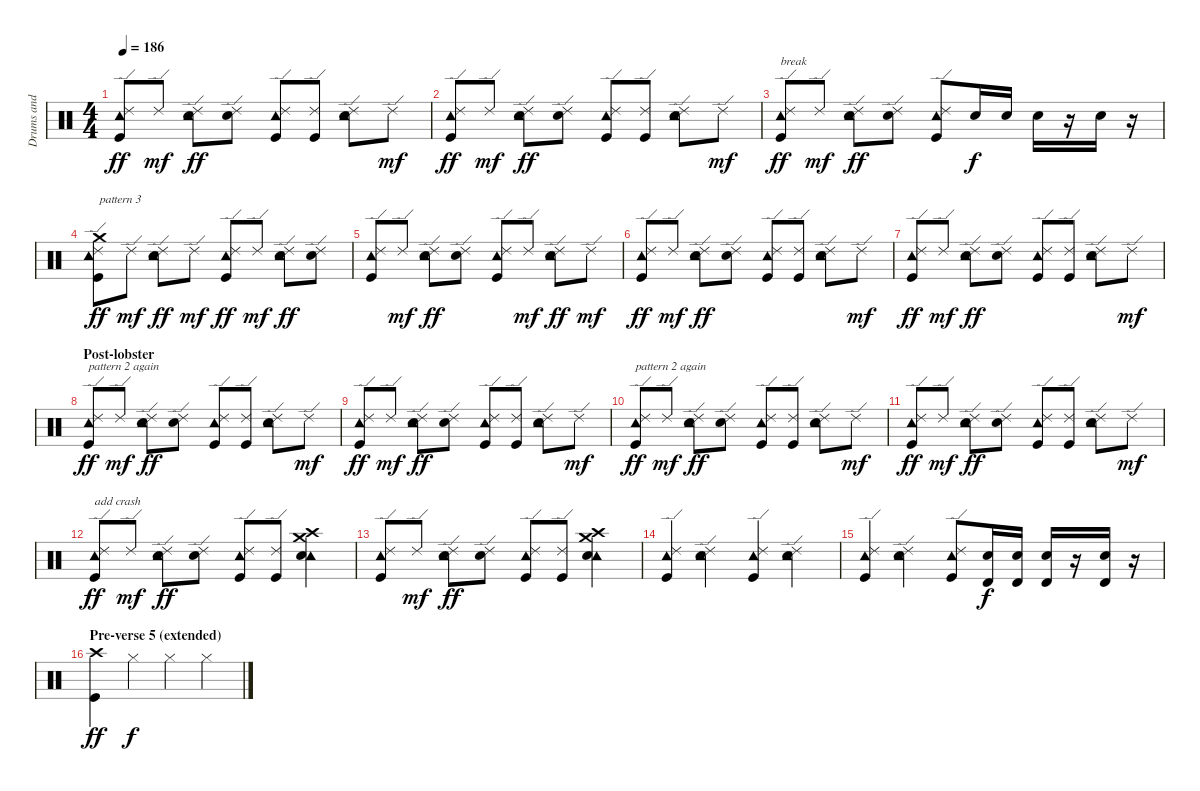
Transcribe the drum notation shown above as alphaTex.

\track ("Drums and Percs" "Drums and ") {instrument percussion}
\staff {score}
\articulation defaults
\ts (4 4)
\tempo 186
\clef neutral
\ks c
("Ride (edge) 2" "Tambourine (hit)" "Kick (hit)").8{dy ff} "Ride (edge) 2".8{dy mf} ("Ride (edge) 2" "Tambourine (hit)" "Electric Snare (hit)").8{dy ff} ("Ride (edge) 2" "Electric Snare (hit)").8 ("Ride (edge) 2" "Tambourine (hit)" "Kick (hit)").8 ("Ride (edge) 2" "Kick (hit)").8 ("Ride (edge) 2" "Tambourine (hit)" "Electric Snare (hit)").8 "Ride (edge) 2".8{dy mf} |
("Ride (edge) 2" "Tambourine (hit)" "Kick (hit)").8{dy ff} "Ride (edge) 2".8{dy mf} ("Ride (edge) 2" "Tambourine (hit)" "Electric Snare (hit)").8{dy ff} ("Ride (edge) 2" "Electric Snare (hit)").8 ("Ride (edge) 2" "Tambourine (hit)" "Kick (hit)").8 ("Ride (edge) 2" "Kick (hit)").8 ("Ride (edge) 2" "Tambourine (hit)" "Electric Snare (hit)").8 "Ride (edge) 2".8{dy mf} |
("Ride (edge) 2" "Tambourine (hit)" "Kick (hit)").8{txt "break" dy ff} "Ride (edge) 2".8{dy mf} ("Ride (edge) 2" "Tambourine (hit)" "Electric Snare (hit)").8{dy ff} ("Ride (edge) 2" "Electric Snare (hit)").8 ("Ride (edge) 2" "Tambourine (hit)" "Kick (hit)").8 "Electric Snare (hit)".16{dy f} "Electric Snare (hit)".16 "Electric Snare (hit)".16 r.16 "Electric Snare (hit)".16 r.16 |
("Ride (edge) 2" "Tambourine (hit)" "Crash medium (hit)" "Kick (hit)").8{txt "pattern 3" dy ff} "Ride (edge) 2".8{dy mf} ("Ride (edge) 2" "Tambourine (hit)" "Electric Snare (hit)").8{dy ff} "Ride (edge) 2".8{dy mf} ("Ride (edge) 2" "Tambourine (hit)" "Kick (hit)").8{dy ff} "Ride (edge) 2".8{dy mf} ("Ride (edge) 2" "Tambourine (hit)" "Electric Snare (hit)").8{dy ff} ("Ride (edge) 2" "Electric Snare (hit)").8 |
("Ride (edge) 2" "Tambourine (hit)" "Kick (hit)").8 "Ride (edge) 2".8{dy mf} ("Ride (edge) 2" "Tambourine (hit)" "Electric Snare (hit)").8{dy ff} ("Ride (edge) 2" "Electric Snare (hit)").8 ("Ride (edge) 2" "Tambourine (hit)" "Kick (hit)").8 "Ride (edge) 2".8{dy mf} ("Ride (edge) 2" "Tambourine (hit)" "Electric Snare (hit)").8{dy ff} "Ride (edge) 2".8{dy mf} |
("Ride (edge) 2" "Tambourine (hit)" "Kick (hit)").8{dy ff} "Ride (edge) 2".8{dy mf} ("Ride (edge) 2" "Tambourine (hit)" "Electric Snare (hit)").8{dy ff} ("Ride (edge) 2" "Electric Snare (hit)").8 ("Ride (edge) 2" "Tambourine (hit)" "Kick (hit)").8 ("Ride (edge) 2" "Kick (hit)").8 ("Ride (edge) 2" "Tambourine (hit)" "Electric Snare (hit)").8 "Ride (edge) 2".8{dy mf} |
("Ride (edge) 2" "Tambourine (hit)" "Kick (hit)").8{dy ff} "Ride (edge) 2".8{dy mf} ("Ride (edge) 2" "Tambourine (hit)" "Electric Snare (hit)").8{dy ff} ("Ride (edge) 2" "Electric Snare (hit)").8 ("Ride (edge) 2" "Tambourine (hit)" "Kick (hit)").8 ("Ride (edge) 2" "Kick (hit)").8 ("Ride (edge) 2" "Tambourine (hit)" "Electric Snare (hit)").8 "Ride (edge) 2".8{dy mf} |
\section ("" "Post-lobster")
("Ride (edge) 2" "Tambourine (hit)" "Kick (hit)").8{txt "pattern 2 again" dy ff} "Ride (edge) 2".8{dy mf} ("Ride (edge) 2" "Tambourine (hit)" "Electric Snare (hit)").8{dy ff} ("Ride (edge) 2" "Electric Snare (hit)").8 ("Ride (edge) 2" "Tambourine (hit)" "Kick (hit)").8 ("Ride (edge) 2" "Kick (hit)").8 ("Ride (edge) 2" "Tambourine (hit)" "Electric Snare (hit)").8 "Ride (edge) 2".8{dy mf} |
("Ride (edge) 2" "Tambourine (hit)" "Kick (hit)").8{dy ff} "Ride (edge) 2".8{dy mf} ("Ride (edge) 2" "Tambourine (hit)" "Electric Snare (hit)").8{dy ff} ("Ride (edge) 2" "Electric Snare (hit)").8 ("Ride (edge) 2" "Tambourine (hit)" "Kick (hit)").8 ("Ride (edge) 2" "Kick (hit)").8 ("Ride (edge) 2" "Tambourine (hit)" "Electric Snare (hit)").8 "Ride (edge) 2".8{dy mf} |
("Ride (edge) 2" "Tambourine (hit)" "Kick (hit)").8{txt "pattern 2 again" dy ff} "Ride (edge) 2".8{dy mf} ("Ride (edge) 2" "Tambourine (hit)" "Electric Snare (hit)").8{dy ff} ("Ride (edge) 2" "Electric Snare (hit)").8 ("Ride (edge) 2" "Tambourine (hit)" "Kick (hit)").8 ("Ride (edge) 2" "Kick (hit)").8 ("Ride (edge) 2" "Tambourine (hit)" "Electric Snare (hit)").8 "Ride (edge) 2".8{dy mf} |
("Ride (edge) 2" "Tambourine (hit)" "Kick (hit)").8{dy ff} "Ride (edge) 2".8{dy mf} ("Ride (edge) 2" "Tambourine (hit)" "Electric Snare (hit)").8{dy ff} ("Ride (edge) 2" "Electric Snare (hit)").8 ("Ride (edge) 2" "Tambourine (hit)" "Kick (hit)").8 ("Ride (edge) 2" "Kick (hit)").8 ("Ride (edge) 2" "Tambourine (hit)" "Electric Snare (hit)").8 "Ride (edge) 2".8{dy mf} |
("Ride (edge) 2" "Tambourine (hit)" "Kick (hit)").8{txt "add crash" dy ff} "Ride (edge) 2".8{dy mf} ("Ride (edge) 2" "Tambourine (hit)" "Electric Snare (hit)").8{dy ff} ("Ride (edge) 2" "Electric Snare (hit)").8 ("Ride (edge) 2" "Tambourine (hit)" "Kick (hit)").8 ("Ride (edge) 2" "Kick (hit)").8 ("Crash high (hit)" "Tambourine (hit)" "Crash medium (hit)" "Electric Snare (hit)").4 |
("Ride (edge) 2" "Tambourine (hit)" "Kick (hit)").8 "Ride (edge) 2".8{dy mf} ("Ride (edge) 2" "Tambourine (hit)" "Electric Snare (hit)").8{dy ff} ("Ride (edge) 2" "Electric Snare (hit)").8 ("Ride (edge) 2" "Tambourine (hit)" "Kick (hit)").8 ("Ride (edge) 2" "Kick (hit)").8 ("Crash high (hit)" "Tambourine (hit)" "Crash medium (hit)" "Electric Snare (hit)").4 |
("Ride (edge) 2" "Tambourine (hit)" "Kick (hit)").4 ("Ride (edge) 2" "Tambourine (hit)" "Electric Snare (hit)").4 ("Ride (edge) 2" "Tambourine (hit)" "Kick (hit)").4 ("Ride (edge) 2" "Tambourine (hit)" "Electric Snare (hit)").4 |
("Ride (edge) 2" "Tambourine (hit)" "Kick (hit)").4 ("Ride (edge) 2" "Tambourine (hit)" "Electric Snare (hit)").4 ("Ride (edge) 2" "Tambourine (hit)" "Kick (hit)").8 ("Timbale high (hit)" "Electric Snare (hit)").16{dy f} ("Timbale high (hit)" "Electric Snare (hit)").16 ("Timbale high (hit)" "Electric Snare (hit)").16 r.16 ("Timbale high (hit)" "Electric Snare (hit)").16 r.16 |
\section ("" "Pre-verse 5 (extended)")
("Crash high (hit)" "Kick (hit)").4{dy ff} "Hi-Hat (closed)".4{dy f} "Hi-Hat (closed)".4 "Hi-Hat (closed)".4
